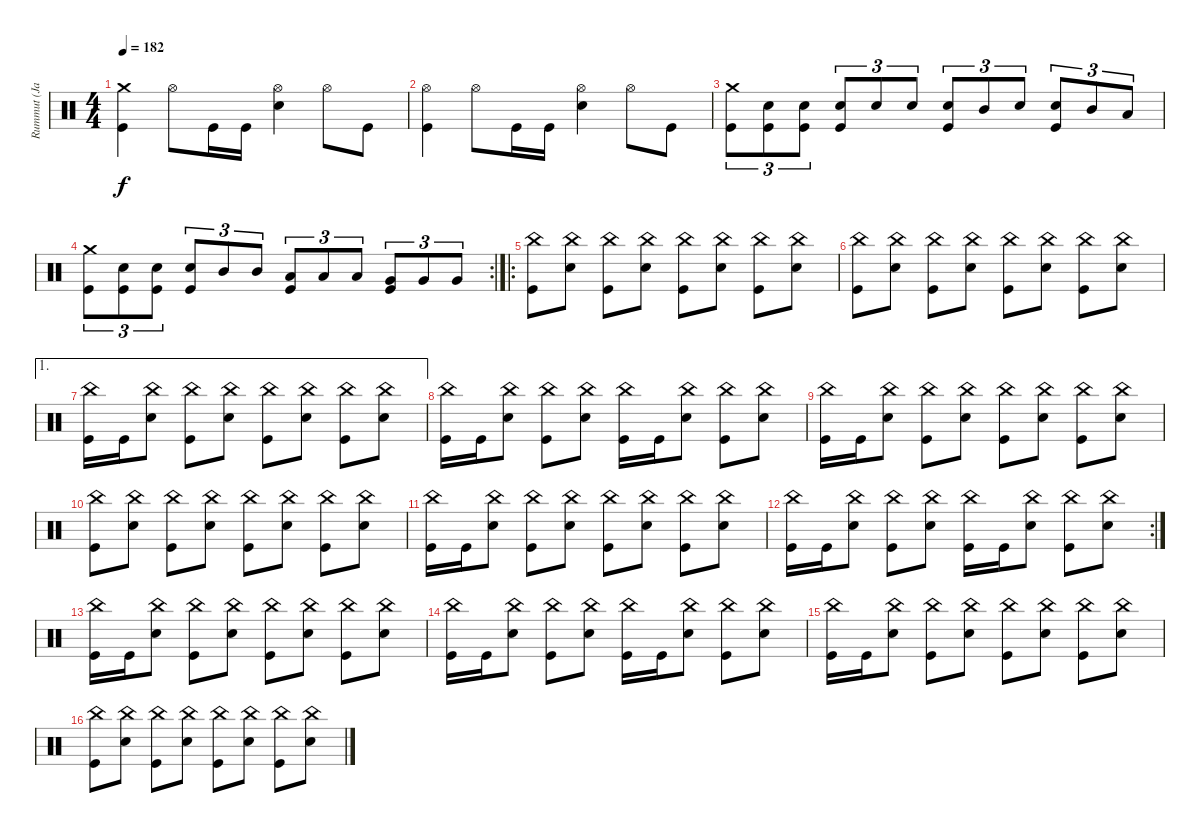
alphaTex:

\track ("Rummut (Janne)" "Rummut (Ja") {instrument percussion}
\staff {score}
\articulation defaults
\ts (4 4)
\tempo 182
\clef neutral
\ks c
("Crash medium (hit)" "Kick (hit)").4{dy f} "Hi-Hat (open)".8 "Kick (hit)".16 "Kick (hit)".16 ("Hi-Hat (open)" "Snare (hit) 2").4 "Hi-Hat (open)".8 "Kick (hit)".8 |
("Hi-Hat (open)" "Kick (hit)").4 "Hi-Hat (open)".8 "Kick (hit)".16 "Kick (hit)".16 ("Hi-Hat (open)" "Snare (hit) 2").4 "Hi-Hat (open)".8 "Kick (hit)".8 |
("Crash medium (hit)" "Kick (hit)").8{tu (3 2)} ("Snare (hit) 2" "Kick (hit)").8{tu (3 2)} ("Snare (hit) 2" "Kick (hit)").8{tu (3 2)} ("Snare (hit) 2" "Kick (hit)").8{tu (3 2)} "Snare (hit) 2".8{tu (3 2)} "Snare (hit) 2".8{tu (3 2)} ("Snare (hit) 2" "Kick (hit)").8{tu (3 2)} "Mid Tom (hit)".8{tu (3 2)} "Snare (hit) 2".8{tu (3 2)} ("Snare (hit) 2" "Kick (hit)").8{tu (3 2)} "Mid Tom (hit)".8{tu (3 2)} "Low Tom (hit)".8{tu (3 2)} |
\rc 2
("Crash medium (hit)" "Kick (hit)").8{tu (3 2)} ("Snare (hit) 2" "Kick (hit)").8{tu (3 2)} ("Snare (hit) 2" "Kick (hit)").8{tu (3 2)} ("Snare (hit) 2" "Kick (hit)").8{tu (3 2)} "Mid Tom (hit)".8{tu (3 2)} "Mid Tom (hit)".8{tu (3 2)} ("Low Tom (hit)" "Kick (hit)").8{tu (3 2)} "Low Tom (hit)".8{tu (3 2)} "Low Tom (hit)".8{tu (3 2)} ("Very Low Tom (hit)" "Kick (hit)").8{tu (3 2)} "Very Low Tom (hit)".8{tu (3 2)} "Very Low Tom (hit)".8{tu (3 2)} |
\ro
("China (hit)" "Kick (hit)").8 ("China (hit)" "Snare (hit) 2").8 ("China (hit)" "Kick (hit)").8 ("China (hit)" "Snare (hit) 2").8 ("China (hit)" "Kick (hit)").8 ("China (hit)" "Snare (hit) 2").8 ("China (hit)" "Kick (hit)").8 ("China (hit)" "Snare (hit) 2").8 |
("China (hit)" "Kick (hit)").8 ("China (hit)" "Snare (hit) 2").8 ("China (hit)" "Kick (hit)").8 ("China (hit)" "Snare (hit) 2").8 ("China (hit)" "Kick (hit)").8 ("China (hit)" "Snare (hit) 2").8 ("China (hit)" "Kick (hit)").8 ("China (hit)" "Snare (hit) 2").8 |
\ae 1
("China (hit)" "Kick (hit)").16 "Kick (hit)".16 ("China (hit)" "Snare (hit) 2").8 ("China (hit)" "Kick (hit)").8 ("China (hit)" "Snare (hit) 2").8 ("China (hit)" "Kick (hit)").8 ("China (hit)" "Snare (hit) 2").8 ("China (hit)" "Kick (hit)").8 ("China (hit)" "Snare (hit) 2").8 |
("China (hit)" "Kick (hit)").16 "Kick (hit)".16 ("China (hit)" "Snare (hit) 2").8 ("China (hit)" "Kick (hit)").8 ("China (hit)" "Snare (hit) 2").8 ("China (hit)" "Kick (hit)").16 "Kick (hit)".16 ("China (hit)" "Snare (hit) 2").8 ("China (hit)" "Kick (hit)").8 ("China (hit)" "Snare (hit) 2").8 |
("China (hit)" "Kick (hit)").16 "Kick (hit)".16 ("China (hit)" "Snare (hit) 2").8 ("China (hit)" "Kick (hit)").8 ("China (hit)" "Snare (hit) 2").8 ("China (hit)" "Kick (hit)").8 ("China (hit)" "Snare (hit) 2").8 ("China (hit)" "Kick (hit)").8 ("China (hit)" "Snare (hit) 2").8 |
("China (hit)" "Kick (hit)").8 ("China (hit)" "Snare (hit) 2").8 ("China (hit)" "Kick (hit)").8 ("China (hit)" "Snare (hit) 2").8 ("China (hit)" "Kick (hit)").8 ("China (hit)" "Snare (hit) 2").8 ("China (hit)" "Kick (hit)").8 ("China (hit)" "Snare (hit) 2").8 |
("China (hit)" "Kick (hit)").16 "Kick (hit)".16 ("China (hit)" "Snare (hit) 2").8 ("China (hit)" "Kick (hit)").8 ("China (hit)" "Snare (hit) 2").8 ("China (hit)" "Kick (hit)").8 ("China (hit)" "Snare (hit) 2").8 ("China (hit)" "Kick (hit)").8 ("China (hit)" "Snare (hit) 2").8 |
\rc 2
("China (hit)" "Kick (hit)").16 "Kick (hit)".16 ("China (hit)" "Snare (hit) 2").8 ("China (hit)" "Kick (hit)").8 ("China (hit)" "Snare (hit) 2").8 ("China (hit)" "Kick (hit)").16 "Kick (hit)".16 ("China (hit)" "Snare (hit) 2").8 ("China (hit)" "Kick (hit)").8 ("China (hit)" "Snare (hit) 2").8 |
("China (hit)" "Kick (hit)").16 "Kick (hit)".16 ("China (hit)" "Snare (hit) 2").8 ("China (hit)" "Kick (hit)").8 ("China (hit)" "Snare (hit) 2").8 ("China (hit)" "Kick (hit)").8 ("China (hit)" "Snare (hit) 2").8 ("China (hit)" "Kick (hit)").8 ("China (hit)" "Snare (hit) 2").8 |
("China (hit)" "Kick (hit)").16 "Kick (hit)".16 ("China (hit)" "Snare (hit) 2").8 ("China (hit)" "Kick (hit)").8 ("China (hit)" "Snare (hit) 2").8 ("China (hit)" "Kick (hit)").16 "Kick (hit)".16 ("China (hit)" "Snare (hit) 2").8 ("China (hit)" "Kick (hit)").8 ("China (hit)" "Snare (hit) 2").8 |
("China (hit)" "Kick (hit)").16 "Kick (hit)".16 ("China (hit)" "Snare (hit) 2").8 ("China (hit)" "Kick (hit)").8 ("China (hit)" "Snare (hit) 2").8 ("China (hit)" "Kick (hit)").8 ("China (hit)" "Snare (hit) 2").8 ("China (hit)" "Kick (hit)").8 ("China (hit)" "Snare (hit) 2").8 |
("China (hit)" "Kick (hit)").8 ("China (hit)" "Snare (hit) 2").8 ("China (hit)" "Kick (hit)").8 ("China (hit)" "Snare (hit) 2").8 ("China (hit)" "Kick (hit)").8 ("China (hit)" "Snare (hit) 2").8 ("China (hit)" "Kick (hit)").8 ("China (hit)" "Snare (hit) 2").8
